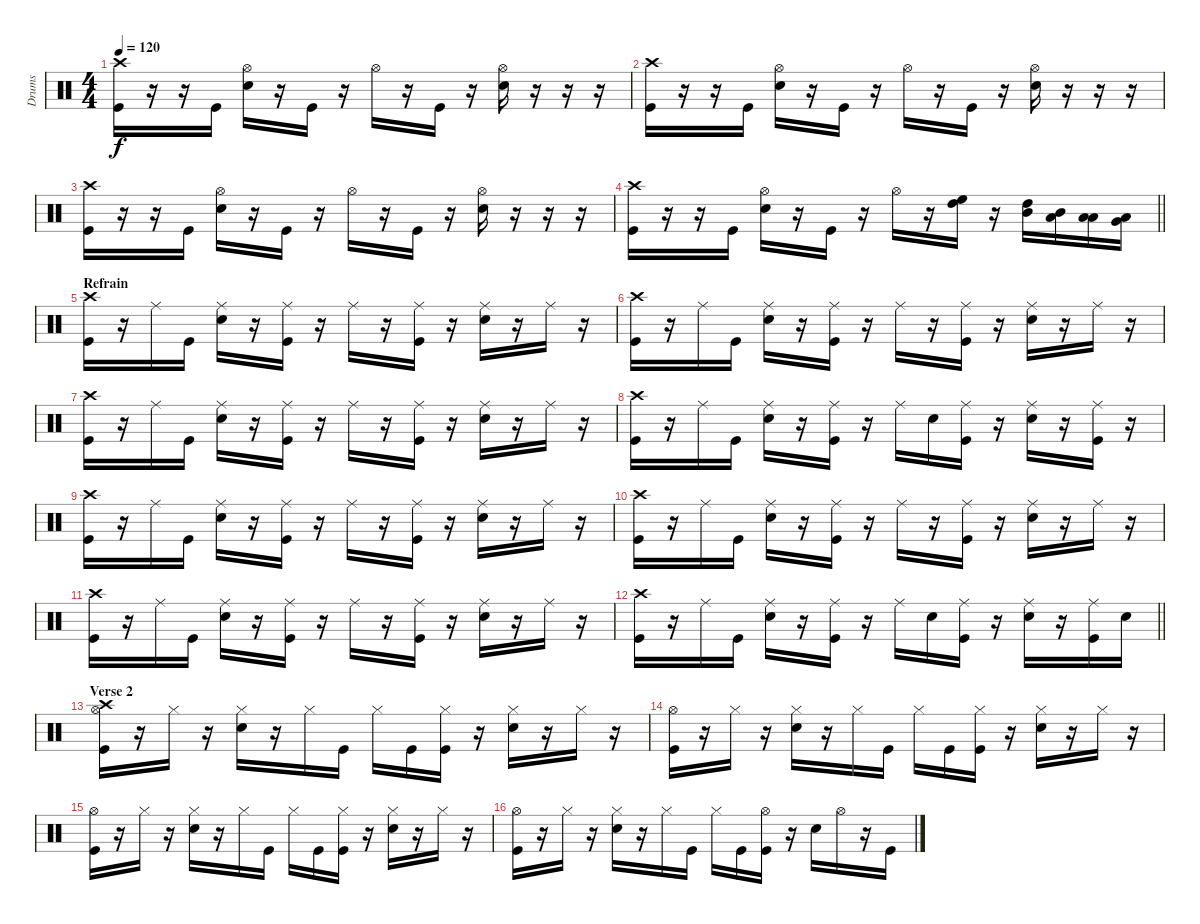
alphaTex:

\track ("Drums" "Drums") {instrument percussion}
\staff {score}
\articulation defaults
\ts (4 4)
\tempo 120
\clef neutral
\ks c
("Crash high (hit)" "Kick (hit)").16{dy f} r.16 r.16 "Kick (hit)".16 ("Snare (hit) 2" "Hi-Hat (open)").16 r.16 "Kick (hit)".16 r.16 "Hi-Hat (open)".16 r.16 "Kick (hit)".16 r.16 ("Snare (hit) 2" "Hi-Hat (open)").16 r.16 r.16 r.16 |
("Crash high (hit)" "Kick (hit)").16 r.16 r.16 "Kick (hit)".16 ("Snare (hit) 2" "Hi-Hat (open)").16 r.16 "Kick (hit)".16 r.16 "Hi-Hat (open)".16 r.16 "Kick (hit)".16 r.16 ("Snare (hit) 2" "Hi-Hat (open)").16 r.16 r.16 r.16 |
("Crash high (hit)" "Kick (hit)").16 r.16 r.16 "Kick (hit)".16 ("Snare (hit) 2" "Hi-Hat (open)").16 r.16 "Kick (hit)".16 r.16 "Hi-Hat (open)".16 r.16 "Kick (hit)".16 r.16 ("Snare (hit) 2" "Hi-Hat (open)").16 r.16 r.16 r.16 |
\barLineRight lightlight
("Crash high (hit)" "Kick (hit)").16 r.16 r.16 "Kick (hit)".16 ("Snare (hit) 2" "Hi-Hat (open)").16 r.16 "Kick (hit)".16 r.16 "Hi-Hat (open)".16 r.16 ("High Tom (hit)" "High Floor Tom (hit)").16 r.16 ("High Tom (hit)" "Mid Tom (hit)").16 ("Mid Tom (hit)" "Low Tom (hit)").16 ("Low Tom (hit)" "Low Tom (hit)").16 ("Low Tom (hit)" "Very Low Tom (hit)").16 |
\section ("" "Refrain")
("Crash high (hit)" "Kick (hit)").16 r.16 "Ride (middle)".16 "Kick (hit)".16 ("Snare (hit) 2" "Ride (middle)").16 r.16 ("Kick (hit)" "Ride (middle)").16 r.16 "Ride (middle)".16 r.16 ("Kick (hit)" "Ride (middle)").16 r.16 ("Snare (hit) 2" "Ride (middle)").16 r.16 "Ride (middle)".16 r.16 |
("Crash high (hit)" "Kick (hit)").16 r.16 "Ride (middle)".16 "Kick (hit)".16 ("Snare (hit) 2" "Ride (middle)").16 r.16 ("Kick (hit)" "Ride (middle)").16 r.16 "Ride (middle)".16 r.16 ("Kick (hit)" "Ride (middle)").16 r.16 ("Snare (hit) 2" "Ride (middle)").16 r.16 "Ride (middle)".16 r.16 |
("Crash high (hit)" "Kick (hit)").16 r.16 "Ride (middle)".16 "Kick (hit)".16 ("Snare (hit) 2" "Ride (middle)").16 r.16 ("Kick (hit)" "Ride (middle)").16 r.16 "Ride (middle)".16 r.16 ("Kick (hit)" "Ride (middle)").16 r.16 ("Snare (hit) 2" "Ride (middle)").16 r.16 "Ride (middle)".16 r.16 |
("Crash high (hit)" "Kick (hit)").16 r.16 "Ride (middle)".16 "Kick (hit)".16 ("Snare (hit) 2" "Ride (middle)").16 r.16 ("Kick (hit)" "Ride (middle)").16 r.16 "Ride (middle)".16 "Snare (hit) 2".16 ("Kick (hit)" "Ride (middle)").16 r.16 ("Snare (hit) 2" "Ride (middle)").16 r.16 ("Ride (middle)" "Kick (hit)").16 r.16 |
("Crash high (hit)" "Kick (hit)").16 r.16 "Ride (middle)".16 "Kick (hit)".16 ("Snare (hit) 2" "Ride (middle)").16 r.16 ("Kick (hit)" "Ride (middle)").16 r.16 "Ride (middle)".16 r.16 ("Kick (hit)" "Ride (middle)").16 r.16 ("Snare (hit) 2" "Ride (middle)").16 r.16 "Ride (middle)".16 r.16 |
("Crash high (hit)" "Kick (hit)").16 r.16 "Ride (middle)".16 "Kick (hit)".16 ("Snare (hit) 2" "Ride (middle)").16 r.16 ("Kick (hit)" "Ride (middle)").16 r.16 "Ride (middle)".16 r.16 ("Kick (hit)" "Ride (middle)").16 r.16 ("Snare (hit) 2" "Ride (middle)").16 r.16 "Ride (middle)".16 r.16 |
("Crash high (hit)" "Kick (hit)").16 r.16 "Ride (middle)".16 "Kick (hit)".16 ("Snare (hit) 2" "Ride (middle)").16 r.16 ("Kick (hit)" "Ride (middle)").16 r.16 "Ride (middle)".16 r.16 ("Kick (hit)" "Ride (middle)").16 r.16 ("Snare (hit) 2" "Ride (middle)").16 r.16 "Ride (middle)".16 r.16 |
\barLineRight lightlight
("Crash high (hit)" "Kick (hit)").16 r.16 "Ride (middle)".16 "Kick (hit)".16 ("Snare (hit) 2" "Ride (middle)").16 r.16 ("Kick (hit)" "Ride (middle)").16 r.16 "Ride (middle)".16 "Snare (hit) 2".16 ("Kick (hit)" "Ride (middle)").16 r.16 ("Snare (hit) 2" "Ride (middle)").16 r.16 ("Ride (middle)" "Kick (hit)").16 "Snare (hit) 2".16 |
\section ("" "Verse 2")
("Hi-Hat (open)" "Kick (hit)" "Crash high (hit)").16 r.16 "Hi-Hat (closed)".16 r.16 ("Hi-Hat (closed)" "Snare (hit) 2").16 r.16 "Hi-Hat (closed)".16 "Kick (hit)".16 "Hi-Hat (closed)".16 "Kick (hit)".16 ("Hi-Hat (closed)" "Kick (hit)").16 r.16 ("Hi-Hat (closed)" "Snare (hit) 2").16 r.16 "Hi-Hat (closed)".16 r.16 |
("Hi-Hat (open)" "Kick (hit)").16 r.16 "Hi-Hat (closed)".16 r.16 ("Hi-Hat (closed)" "Snare (hit) 2").16 r.16 "Hi-Hat (closed)".16 "Kick (hit)".16 "Hi-Hat (closed)".16 "Kick (hit)".16 ("Hi-Hat (closed)" "Kick (hit)").16 r.16 ("Hi-Hat (closed)" "Snare (hit) 2").16 r.16 "Hi-Hat (closed)".16 r.16 |
("Hi-Hat (open)" "Kick (hit)").16 r.16 "Hi-Hat (closed)".16 r.16 ("Hi-Hat (closed)" "Snare (hit) 2").16 r.16 "Hi-Hat (closed)".16 "Kick (hit)".16 "Hi-Hat (closed)".16 "Kick (hit)".16 ("Hi-Hat (closed)" "Kick (hit)").16 r.16 ("Hi-Hat (closed)" "Snare (hit) 2").16 r.16 "Hi-Hat (closed)".16 r.16 |
("Hi-Hat (open)" "Kick (hit)").16 r.16 "Hi-Hat (closed)".16 r.16 ("Hi-Hat (closed)" "Snare (hit) 2").16 r.16 "Hi-Hat (closed)".16 "Kick (hit)".16 "Hi-Hat (closed)".16 "Kick (hit)".16 ("Hi-Hat (open)" "Kick (hit)").16 r.16 "Snare (hit) 2".16 "Hi-Hat (open)".16 r.16 "Kick (hit)".16
